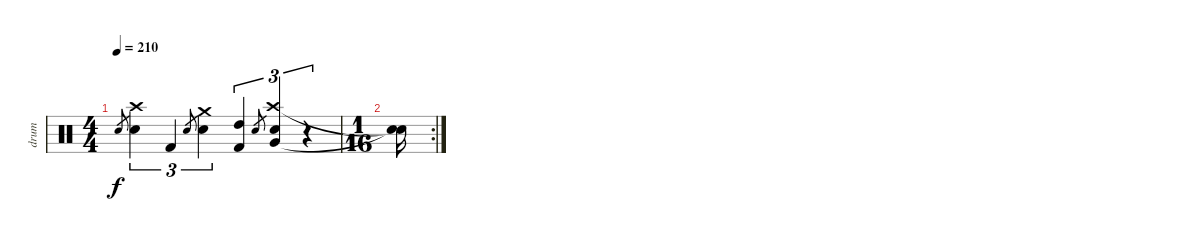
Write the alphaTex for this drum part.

\track ("drum" "drum") {instrument percussion}
\staff {score}
\articulation defaults
\ts (4 4)
\tempo 210
\clef neutral
\ks c "Electric Snare (hit)".8{gr dy f}
("Crash high (hit)" "Electric Snare (hit)").4{tu (3 2)} "Kick (hit) 2".4{tu (3 2)} "Electric Snare (hit)".8{gr} ("Crash medium (hit)" "Electric Snare (hit)").4{tu (3 2)} ("High Tom (hit)" "Kick (hit) 2").4{tu (3 2)} "Electric Snare (hit)".8{gr} ("Crash high (hit)" "Very Low Tom (hit)" "Electric Snare (hit)").4{tu (3 2)} r.4{tu (3 2)} |
\rc 2
\ts (1 16)
("Snare (hit)"{t} "Snare (hit)"{t}).16
